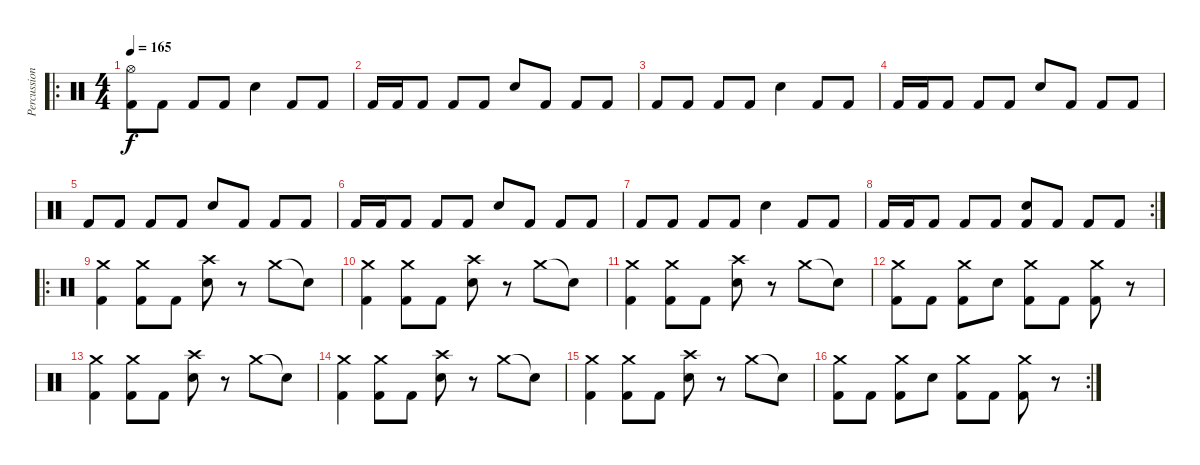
\track ("Percussion" "Percussion") {instrument percussion}
\staff {score}
\articulation defaults
\ro
\ts (4 4)
\tempo 165
\clef neutral
\ks c
("Hi-Hat (open)" "Kick (hit) 2").8{dy f} "Kick (hit) 2".8 "Kick (hit) 2".8 "Kick (hit) 2".8 "Electric Snare (hit)".4 "Kick (hit) 2".8 "Kick (hit) 2".8 |
"Kick (hit) 2".16 "Kick (hit) 2".16 "Kick (hit) 2".8 "Kick (hit) 2".8 "Kick (hit) 2".8 "Electric Snare (hit)".8 "Kick (hit) 2".8 "Kick (hit) 2".8 "Kick (hit) 2".8 |
"Kick (hit) 2".8 "Kick (hit) 2".8 "Kick (hit) 2".8 "Kick (hit) 2".8 "Electric Snare (hit)".4 "Kick (hit) 2".8 "Kick (hit) 2".8 |
"Kick (hit) 2".16 "Kick (hit) 2".16 "Kick (hit) 2".8 "Kick (hit) 2".8 "Kick (hit) 2".8 "Electric Snare (hit)".8 "Kick (hit) 2".8 "Kick (hit) 2".8 "Kick (hit) 2".8 |
"Kick (hit) 2".8 "Kick (hit) 2".8 "Kick (hit) 2".8 "Kick (hit) 2".8 "Electric Snare (hit)".8 "Kick (hit) 2".8 "Kick (hit) 2".8 "Kick (hit) 2".8 |
"Kick (hit) 2".16 "Kick (hit) 2".16 "Kick (hit) 2".8 "Kick (hit) 2".8 "Kick (hit) 2".8 "Electric Snare (hit)".8 "Kick (hit) 2".8 "Kick (hit) 2".8 "Kick (hit) 2".8 |
"Kick (hit) 2".8 "Kick (hit) 2".8 "Kick (hit) 2".8 "Kick (hit) 2".8 "Electric Snare (hit)".4 "Kick (hit) 2".8 "Kick (hit) 2".8 |
\rc 2 "Kick (hit) 2".16 "Kick (hit) 2".16 "Kick (hit) 2".8 "Kick (hit) 2".8 "Kick (hit) 2".8
("Electric Snare (hit)" "Kick (hit) 2").8 "Kick (hit) 2".8 "Kick (hit) 2".8 "Kick (hit) 2".8 |
\ro
("Crash medium (hit)" "Kick (hit) 2").4 ("Crash medium (hit)" "Kick (hit) 2").8 "Kick (hit) 2".8 ("Crash high (hit)" "Electric Snare (hit)").8 r.8 "Crash medium (hit)".8 "Snare (hit)"{t}.8 |
("Crash medium (hit)" "Kick (hit) 2").4 ("Crash medium (hit)" "Kick (hit) 2").8 "Kick (hit) 2".8 ("Crash high (hit)" "Electric Snare (hit)").8 r.8 "Crash medium (hit)".8 "Snare (hit)"{t}.8 |
("Crash medium (hit)" "Kick (hit) 2").4 ("Crash medium (hit)" "Kick (hit) 2").8 "Kick (hit) 2".8 ("Crash high (hit)" "Electric Snare (hit)").8 r.8 "Crash medium (hit)".8 "Snare (hit)"{t}.8 |
("Crash medium (hit)" "Kick (hit) 2").8 "Kick (hit) 2".8 ("Crash medium (hit)" "Kick (hit) 2").8 "Electric Snare (hit)".8 ("Crash medium (hit)" "Kick (hit) 2").8 "Kick (hit) 2".8 ("Crash medium (hit)" "Kick (hit) 2").8 r.8 |
("Crash medium (hit)" "Kick (hit) 2").4 ("Crash medium (hit)" "Kick (hit) 2").8 "Kick (hit) 2".8 ("Crash high (hit)" "Electric Snare (hit)").8 r.8 "Crash medium (hit)".8 "Snare (hit)"{t}.8 |
("Crash medium (hit)" "Kick (hit) 2").4 ("Crash medium (hit)" "Kick (hit) 2").8 "Kick (hit) 2".8 ("Crash high (hit)" "Electric Snare (hit)").8 r.8 "Crash medium (hit)".8 "Snare (hit)"{t}.8 |
("Crash medium (hit)" "Kick (hit) 2").4 ("Crash medium (hit)" "Kick (hit) 2").8 "Kick (hit) 2".8 ("Crash high (hit)" "Electric Snare (hit)").8 r.8 "Crash medium (hit)".8 "Snare (hit)"{t}.8 |
\rc 2
("Crash medium (hit)" "Kick (hit) 2").8 "Kick (hit) 2".8 ("Crash medium (hit)" "Kick (hit) 2").8 "Electric Snare (hit)".8 ("Crash medium (hit)" "Kick (hit) 2").8 "Kick (hit) 2".8 ("Crash medium (hit)" "Kick (hit) 2").8 r.8
